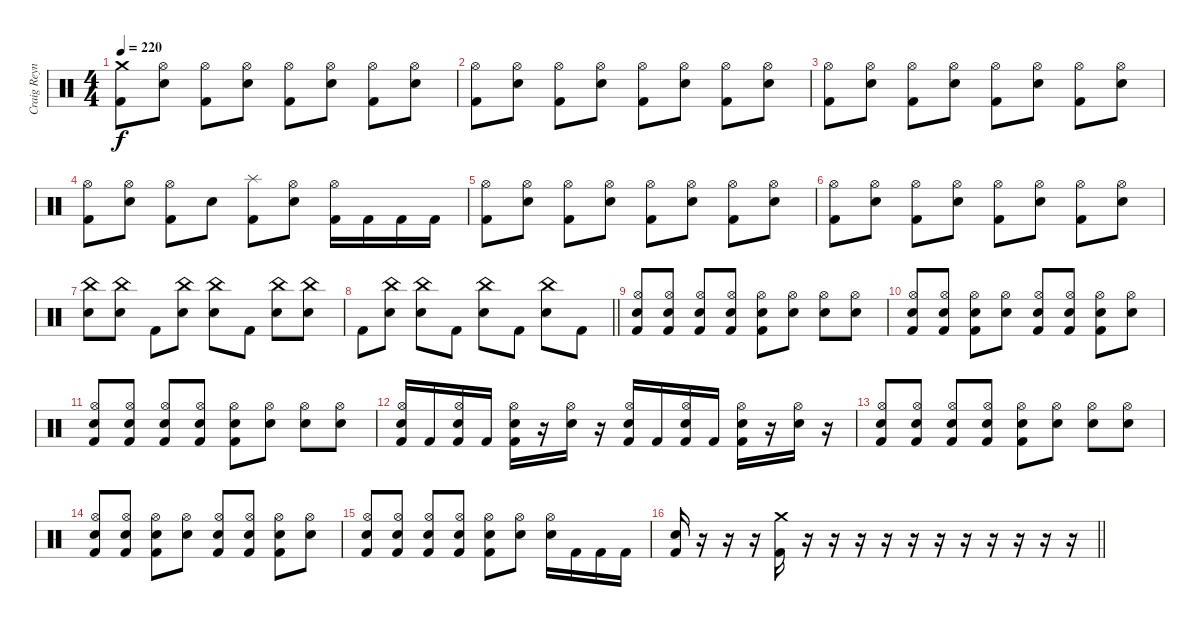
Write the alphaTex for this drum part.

\track ("Craig Reynolds" "Craig Reyn") {instrument percussion}
\staff {score}
\articulation defaults
\ts (4 4)
\tempo 220
\clef neutral
\ks c
("Crash medium (hit)" "Kick (hit) 2").8{dy f} ("Hi-Hat (open)" "Electric Snare (hit)").8 ("Hi-Hat (open)" "Kick (hit) 2").8 ("Hi-Hat (open)" "Electric Snare (hit)").8 ("Hi-Hat (open)" "Kick (hit) 2").8 ("Hi-Hat (open)" "Electric Snare (hit)").8 ("Hi-Hat (open)" "Kick (hit) 2").8 ("Hi-Hat (open)" "Electric Snare (hit)").8 |
("Hi-Hat (open)" "Kick (hit) 2").8 ("Hi-Hat (open)" "Electric Snare (hit)").8 ("Hi-Hat (open)" "Kick (hit) 2").8 ("Hi-Hat (open)" "Electric Snare (hit)").8 ("Hi-Hat (open)" "Kick (hit) 2").8 ("Hi-Hat (open)" "Electric Snare (hit)").8 ("Hi-Hat (open)" "Kick (hit) 2").8 ("Hi-Hat (open)" "Electric Snare (hit)").8 |
("Hi-Hat (open)" "Kick (hit) 2").8 ("Hi-Hat (open)" "Electric Snare (hit)").8 ("Hi-Hat (open)" "Kick (hit) 2").8 ("Hi-Hat (open)" "Electric Snare (hit)").8 ("Hi-Hat (open)" "Kick (hit) 2").8 ("Hi-Hat (open)" "Electric Snare (hit)").8 ("Hi-Hat (open)" "Kick (hit) 2").8 ("Hi-Hat (open)" "Electric Snare (hit)").8 |
("Hi-Hat (open)" "Kick (hit) 2").8 ("Hi-Hat (open)" "Electric Snare (hit)").8 ("Hi-Hat (open)" "Kick (hit) 2").8 "Electric Snare (hit)".8 ("Splash (hit)" "Kick (hit) 2").8 ("Hi-Hat (open)" "Electric Snare (hit)").8 ("Hi-Hat (open)" "Kick (hit) 2").16 "Kick (hit) 2".16 "Kick (hit) 2".16 "Kick (hit) 2".16 |
("Hi-Hat (open)" "Kick (hit) 2").8 ("Hi-Hat (open)" "Electric Snare (hit)").8 ("Hi-Hat (open)" "Kick (hit) 2").8 ("Hi-Hat (open)" "Electric Snare (hit)").8 ("Hi-Hat (open)" "Kick (hit) 2").8 ("Hi-Hat (open)" "Electric Snare (hit)").8 ("Hi-Hat (open)" "Kick (hit) 2").8 ("Hi-Hat (open)" "Electric Snare (hit)").8 |
("Hi-Hat (open)" "Kick (hit) 2").8 ("Hi-Hat (open)" "Electric Snare (hit)").8 ("Hi-Hat (open)" "Kick (hit) 2").8 ("Hi-Hat (open)" "Electric Snare (hit)").8 ("Hi-Hat (open)" "Kick (hit) 2").8 ("Hi-Hat (open)" "Electric Snare (hit)").8 ("Hi-Hat (open)" "Kick (hit) 2").8 ("Hi-Hat (open)" "Electric Snare (hit)").8 |
("China (hit)" "Electric Snare (hit)").8 ("China (hit)" "Electric Snare (hit)").8 "Kick (hit) 2".8 ("China (hit)" "Electric Snare (hit)").8 ("China (hit)" "Electric Snare (hit)").8 "Kick (hit) 2".8 ("China (hit)" "Electric Snare (hit)").8 ("China (hit)" "Electric Snare (hit)").8 |
\barLineRight lightlight "Kick (hit) 2".8
("China (hit)" "Electric Snare (hit)").8 ("China (hit)" "Electric Snare (hit)").8 "Kick (hit) 2".8 ("China (hit)" "Electric Snare (hit)").8 "Kick (hit) 2".8 ("China (hit)" "Electric Snare (hit)").8 "Kick (hit) 2".8 |
("Hi-Hat (open)" "Electric Snare (hit)" "Kick (hit) 2").8 ("Hi-Hat (open)" "Electric Snare (hit)" "Kick (hit) 2").8 ("Hi-Hat (open)" "Electric Snare (hit)" "Kick (hit) 2").8 ("Hi-Hat (open)" "Electric Snare (hit)" "Kick (hit) 2").8 ("Hi-Hat (open)" "Electric Snare (hit)" "Kick (hit) 2").8 ("Hi-Hat (open)" "Electric Snare (hit)").8 ("Hi-Hat (open)" "Electric Snare (hit)").8 ("Hi-Hat (open)" "Electric Snare (hit)").8 |
("Hi-Hat (open)" "Electric Snare (hit)" "Kick (hit) 2").8 ("Hi-Hat (open)" "Electric Snare (hit)" "Kick (hit) 2").8 ("Hi-Hat (open)" "Electric Snare (hit)" "Kick (hit) 2").8 ("Hi-Hat (open)" "Electric Snare (hit)").8 ("Hi-Hat (open)" "Electric Snare (hit)" "Kick (hit) 2").8 ("Hi-Hat (open)" "Electric Snare (hit)" "Kick (hit) 2").8 ("Hi-Hat (open)" "Electric Snare (hit)" "Kick (hit) 2").8 ("Hi-Hat (open)" "Electric Snare (hit)").8 |
("Hi-Hat (open)" "Electric Snare (hit)" "Kick (hit) 2").8 ("Hi-Hat (open)" "Electric Snare (hit)" "Kick (hit) 2").8 ("Hi-Hat (open)" "Electric Snare (hit)" "Kick (hit) 2").8 ("Hi-Hat (open)" "Electric Snare (hit)" "Kick (hit) 2").8 ("Hi-Hat (open)" "Electric Snare (hit)" "Kick (hit) 2").8 ("Hi-Hat (open)" "Electric Snare (hit)").8 ("Hi-Hat (open)" "Electric Snare (hit)").8 ("Hi-Hat (open)" "Electric Snare (hit)").8 |
("Hi-Hat (open)" "Electric Snare (hit)" "Kick (hit) 2").16 "Kick (hit) 2".16 ("Hi-Hat (open)" "Electric Snare (hit)" "Kick (hit) 2").16 "Kick (hit) 2".16 ("Hi-Hat (open)" "Electric Snare (hit)" "Kick (hit) 2").16 r.16 ("Hi-Hat (open)" "Electric Snare (hit)").16 r.16 ("Hi-Hat (open)" "Electric Snare (hit)" "Kick (hit) 2").16 "Kick (hit) 2".16 ("Hi-Hat (open)" "Electric Snare (hit)" "Kick (hit) 2").16 "Kick (hit) 2".16 ("Hi-Hat (open)" "Electric Snare (hit)" "Kick (hit) 2").16 r.16 ("Hi-Hat (open)" "Electric Snare (hit)").16 r.16 |
("Hi-Hat (open)" "Electric Snare (hit)" "Kick (hit) 2").8 ("Hi-Hat (open)" "Electric Snare (hit)" "Kick (hit) 2").8 ("Hi-Hat (open)" "Electric Snare (hit)" "Kick (hit) 2").8 ("Hi-Hat (open)" "Electric Snare (hit)" "Kick (hit) 2").8 ("Hi-Hat (open)" "Electric Snare (hit)" "Kick (hit) 2").8 ("Hi-Hat (open)" "Electric Snare (hit)").8 ("Hi-Hat (open)" "Electric Snare (hit)").8 ("Hi-Hat (open)" "Electric Snare (hit)").8 |
("Hi-Hat (open)" "Electric Snare (hit)" "Kick (hit) 2").8 ("Hi-Hat (open)" "Electric Snare (hit)" "Kick (hit) 2").8 ("Hi-Hat (open)" "Electric Snare (hit)" "Kick (hit) 2").8 ("Hi-Hat (open)" "Electric Snare (hit)").8 ("Hi-Hat (open)" "Electric Snare (hit)" "Kick (hit) 2").8 ("Hi-Hat (open)" "Electric Snare (hit)" "Kick (hit) 2").8 ("Hi-Hat (open)" "Electric Snare (hit)" "Kick (hit) 2").8 ("Hi-Hat (open)" "Electric Snare (hit)").8 |
("Hi-Hat (open)" "Electric Snare (hit)" "Kick (hit) 2").8 ("Hi-Hat (open)" "Electric Snare (hit)" "Kick (hit) 2").8 ("Hi-Hat (open)" "Electric Snare (hit)" "Kick (hit) 2").8 ("Hi-Hat (open)" "Electric Snare (hit)" "Kick (hit) 2").8 ("Hi-Hat (open)" "Electric Snare (hit)" "Kick (hit) 2").8 ("Hi-Hat (open)" "Electric Snare (hit)").8 ("Hi-Hat (open)" "Electric Snare (hit)").16 "Kick (hit) 2".16 "Kick (hit) 2".16 "Kick (hit) 2".16 |
\barLineRight lightlight
("Electric Snare (hit)" "Kick (hit) 2").16 r.16 r.16 r.16 ("Crash medium (hit)" "Kick (hit) 2").16 r.16 r.16 r.16{volume 0} r.16 r.16 r.16 r.16 r.16 r.16 r.16 r.16
